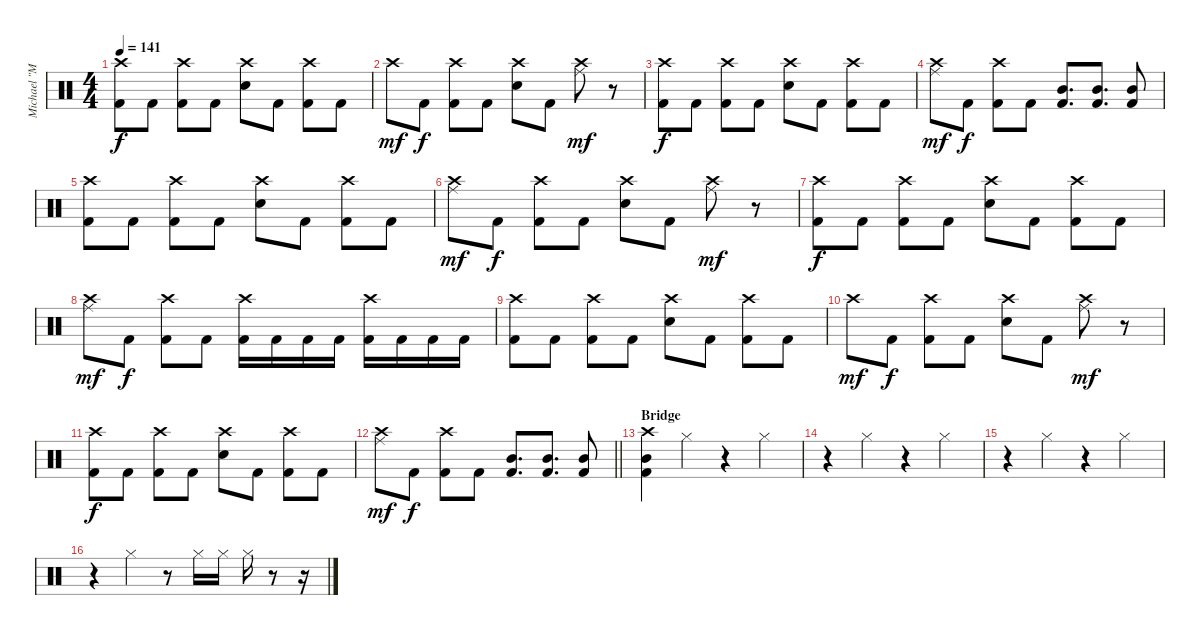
\track ("Michael \"Moose\" Thomas" "Michael \"M") {instrument percussion}
\staff {score}
\articulation defaults
\ts (4 4)
\tempo 141
\clef neutral
\ks c
("Crash high (hit)" "Kick (hit) 2").8{dy f} "Kick (hit) 2".8 ("Crash high (hit)" "Kick (hit) 2").8 "Kick (hit) 2".8 ("Crash high (hit)" "Snare (hit) 2").8 "Kick (hit) 2".8 ("Crash high (hit)" "Kick (hit) 2").8 "Kick (hit) 2".8 |
"Crash high (hit)".8{dy mf} "Kick (hit) 2".8{dy f} ("Crash high (hit)" "Kick (hit) 2").8 "Kick (hit) 2".8 ("Crash high (hit)" "Snare (hit) 2").8 "Kick (hit) 2".8 ("Crash high (hit)" "Ride (middle)").8{dy mf} r.8 |
("Crash high (hit)" "Kick (hit) 2").8{dy f} "Kick (hit) 2".8 ("Crash high (hit)" "Kick (hit) 2").8 "Kick (hit) 2".8 ("Crash high (hit)" "Snare (hit) 2").8 "Kick (hit) 2".8 ("Crash high (hit)" "Kick (hit) 2").8 "Kick (hit) 2".8 |
("Crash high (hit)" "Ride (middle)").8{dy mf} "Kick (hit) 2".8{dy f} ("Crash high (hit)" "Kick (hit) 2").8 "Kick (hit) 2".8 ("Mid Tom (hit)" "Kick (hit) 2").8{d} ("Mid Tom (hit)" "Kick (hit) 2").8{d} ("Mid Tom (hit)" "Kick (hit) 2").8 |
("Crash high (hit)" "Kick (hit) 2").8 "Kick (hit) 2".8 ("Crash high (hit)" "Kick (hit) 2").8 "Kick (hit) 2".8 ("Crash high (hit)" "Snare (hit) 2").8 "Kick (hit) 2".8 ("Crash high (hit)" "Kick (hit) 2").8 "Kick (hit) 2".8 |
("Crash high (hit)" "Ride (middle)").8{dy mf} "Kick (hit) 2".8{dy f} ("Crash high (hit)" "Kick (hit) 2").8 "Kick (hit) 2".8 ("Crash high (hit)" "Snare (hit) 2").8 "Kick (hit) 2".8 ("Crash high (hit)" "Ride (middle)").8{dy mf} r.8 |
("Crash high (hit)" "Kick (hit) 2").8{dy f} "Kick (hit) 2".8 ("Crash high (hit)" "Kick (hit) 2").8 "Kick (hit) 2".8 ("Crash high (hit)" "Snare (hit) 2").8 "Kick (hit) 2".8 ("Crash high (hit)" "Kick (hit) 2").8 "Kick (hit) 2".8 |
("Crash high (hit)" "Ride (middle)").8{dy mf} "Kick (hit) 2".8{dy f} ("Crash high (hit)" "Kick (hit) 2").8 "Kick (hit) 2".8 ("Crash high (hit)" "Kick (hit) 2").16 "Kick (hit) 2".16 "Kick (hit) 2".16 "Kick (hit) 2".16 ("Crash high (hit)" "Kick (hit) 2").16 "Kick (hit) 2".16 "Kick (hit) 2".16 "Kick (hit) 2".16 |
("Crash high (hit)" "Kick (hit) 2").8 "Kick (hit) 2".8 ("Crash high (hit)" "Kick (hit) 2").8 "Kick (hit) 2".8 ("Crash high (hit)" "Snare (hit) 2").8 "Kick (hit) 2".8 ("Crash high (hit)" "Kick (hit) 2").8 "Kick (hit) 2".8 |
"Crash high (hit)".8{dy mf} "Kick (hit) 2".8{dy f} ("Crash high (hit)" "Kick (hit) 2").8 "Kick (hit) 2".8 ("Crash high (hit)" "Snare (hit) 2").8 "Kick (hit) 2".8 ("Crash high (hit)" "Ride (middle)").8{dy mf} r.8 |
("Crash high (hit)" "Kick (hit) 2").8{dy f} "Kick (hit) 2".8 ("Crash high (hit)" "Kick (hit) 2").8 "Kick (hit) 2".8 ("Crash high (hit)" "Snare (hit) 2").8 "Kick (hit) 2".8 ("Crash high (hit)" "Kick (hit) 2").8 "Kick (hit) 2".8 |
\barLineRight lightlight
("Crash high (hit)" "Ride (middle)").8{dy mf} "Kick (hit) 2".8{dy f} ("Crash high (hit)" "Kick (hit) 2").8 "Kick (hit) 2".8 ("Mid Tom (hit)" "Kick (hit) 2").8{d} ("Mid Tom (hit)" "Kick (hit) 2").8{d} ("Mid Tom (hit)" "Kick (hit) 2").8 |
\section ("" "Bridge")
("Crash high (hit)" "Mid Tom (hit)" "Kick (hit) 2").4 "Hi-Hat (closed)".4 r.4 "Hi-Hat (closed)".4 |
r.4 "Hi-Hat (closed)".4 r.4 "Hi-Hat (closed)".4 |
r.4 "Hi-Hat (closed)".4 r.4 "Hi-Hat (closed)".4 |
r.4 "Hi-Hat (closed)".4 r.8 "Hi-Hat (closed)".16 "Hi-Hat (closed)".16 "Hi-Hat (closed)".16 r.8 r.16
